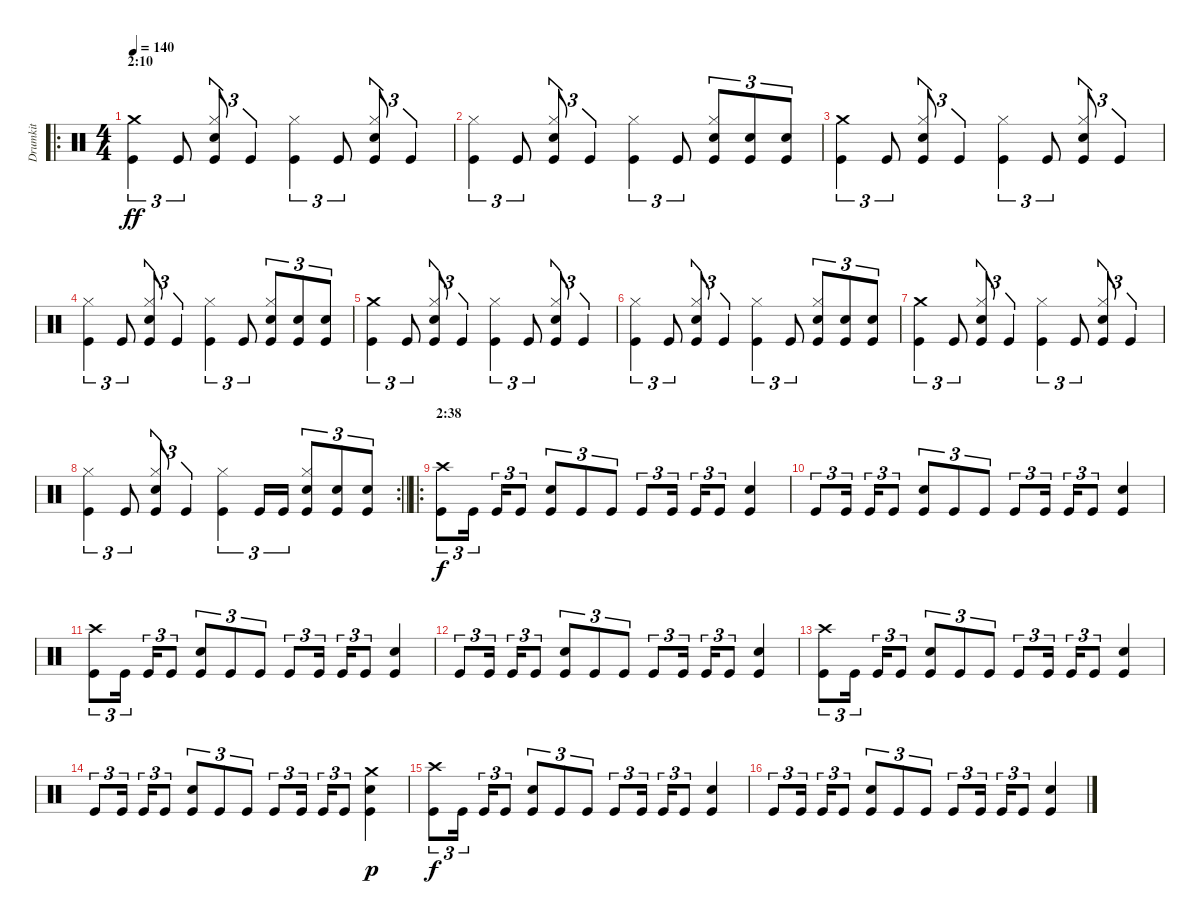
\track ("Drumkit" "Drumkit") {instrument percussion}
\staff {score}
\articulation defaults
\ro
\ts (4 4)
\section ("" "2:10")
\tempo 140
\clef neutral
\ks c
("Crash medium (hit)" "Kick (hit)").4{tu (3 2) dy ff} "Kick (hit)".8{tu (3 2)} ("Hi-Hat (closed)" "Snare (hit) 2" "Kick (hit)").8{tu (3 2)} "Kick (hit)".4{tu (3 2)} ("Hi-Hat (closed)" "Kick (hit)").4{tu (3 2)} "Kick (hit)".8{tu (3 2)} ("Hi-Hat (closed)" "Snare (hit) 2" "Kick (hit)").8{tu (3 2)} "Kick (hit)".4{tu (3 2)} |
("Hi-Hat (closed)" "Kick (hit)").4{tu (3 2)} "Kick (hit)".8{tu (3 2)} ("Hi-Hat (closed)" "Snare (hit) 2" "Kick (hit)").8{tu (3 2)} "Kick (hit)".4{tu (3 2)} ("Hi-Hat (closed)" "Kick (hit)").4{tu (3 2)} "Kick (hit)".8{tu (3 2)} ("Hi-Hat (closed)" "Snare (hit) 2" "Kick (hit)").8{tu (3 2)} ("Snare (hit) 2" "Kick (hit)").8{tu (3 2)} ("Snare (hit) 2" "Kick (hit)").8{tu (3 2)} |
("Crash medium (hit)" "Kick (hit)").4{tu (3 2)} "Kick (hit)".8{tu (3 2)} ("Hi-Hat (closed)" "Snare (hit) 2" "Kick (hit)").8{tu (3 2)} "Kick (hit)".4{tu (3 2)} ("Hi-Hat (closed)" "Kick (hit)").4{tu (3 2)} "Kick (hit)".8{tu (3 2)} ("Hi-Hat (closed)" "Snare (hit) 2" "Kick (hit)").8{tu (3 2)} "Kick (hit)".4{tu (3 2)} |
("Hi-Hat (closed)" "Kick (hit)").4{tu (3 2)} "Kick (hit)".8{tu (3 2)} ("Hi-Hat (closed)" "Snare (hit) 2" "Kick (hit)").8{tu (3 2)} "Kick (hit)".4{tu (3 2)} ("Hi-Hat (closed)" "Kick (hit)").4{tu (3 2)} "Kick (hit)".8{tu (3 2)} ("Hi-Hat (closed)" "Snare (hit) 2" "Kick (hit)").8{tu (3 2)} ("Snare (hit) 2" "Kick (hit)").8{tu (3 2)} ("Snare (hit) 2" "Kick (hit)").8{tu (3 2)} |
("Crash medium (hit)" "Kick (hit)").4{tu (3 2)} "Kick (hit)".8{tu (3 2)} ("Hi-Hat (closed)" "Snare (hit) 2" "Kick (hit)").8{tu (3 2)} "Kick (hit)".4{tu (3 2)} ("Hi-Hat (closed)" "Kick (hit)").4{tu (3 2)} "Kick (hit)".8{tu (3 2)} ("Hi-Hat (closed)" "Snare (hit) 2" "Kick (hit)").8{tu (3 2)} "Kick (hit)".4{tu (3 2)} |
("Hi-Hat (closed)" "Kick (hit)").4{tu (3 2)} "Kick (hit)".8{tu (3 2)} ("Hi-Hat (closed)" "Snare (hit) 2" "Kick (hit)").8{tu (3 2)} "Kick (hit)".4{tu (3 2)} ("Hi-Hat (closed)" "Kick (hit)").4{tu (3 2)} "Kick (hit)".8{tu (3 2)} ("Hi-Hat (closed)" "Snare (hit) 2" "Kick (hit)").8{tu (3 2)} ("Snare (hit) 2" "Kick (hit)").8{tu (3 2)} ("Snare (hit) 2" "Kick (hit)").8{tu (3 2)} |
("Crash medium (hit)" "Kick (hit)").4{tu (3 2)} "Kick (hit)".8{tu (3 2)} ("Hi-Hat (closed)" "Snare (hit) 2" "Kick (hit)").8{tu (3 2)} "Kick (hit)".4{tu (3 2)} ("Hi-Hat (closed)" "Kick (hit)").4{tu (3 2)} "Kick (hit)".8{tu (3 2)} ("Hi-Hat (closed)" "Snare (hit) 2" "Kick (hit)").8{tu (3 2)} "Kick (hit)".4{tu (3 2)} |
\rc 2
\barLineRight lightlight
("Hi-Hat (closed)" "Kick (hit)").4{tu (3 2)} "Kick (hit)".8{tu (3 2)} ("Hi-Hat (closed)" "Snare (hit) 2" "Kick (hit)").8{tu (3 2)} "Kick (hit)".4{tu (3 2)} ("Hi-Hat (closed)" "Kick (hit)").4{tu (3 2)} "Kick (hit)".16{tu (3 2)} "Kick (hit)".16{tu (3 2)} ("Hi-Hat (closed)" "Snare (hit) 2" "Kick (hit)").8{tu (3 2)} ("Snare (hit) 2" "Kick (hit)").8{tu (3 2)} ("Snare (hit) 2" "Kick (hit)").8{tu (3 2)} |
\ro
\section ("" "2:38")
("Crash high (hit)" "Kick (hit)").8{tu (3 2) dy f} "Kick (hit)".16{tu (3 2) beam splitsecondary} "Kick (hit)".16{tu (3 2)} "Kick (hit)".8{tu (3 2)} ("Snare (hit) 2" "Kick (hit)").8{tu (3 2)} "Kick (hit)".8{tu (3 2)} "Kick (hit)".8{tu (3 2)} "Kick (hit)".8{tu (3 2)} "Kick (hit)".16{tu (3 2) beam splitsecondary} "Kick (hit)".16{tu (3 2)} "Kick (hit)".8{tu (3 2)} ("Snare (hit) 2" "Kick (hit)").4 |
"Kick (hit)".8{tu (3 2)} "Kick (hit)".16{tu (3 2) beam splitsecondary} "Kick (hit)".16{tu (3 2)} "Kick (hit)".8{tu (3 2)} ("Snare (hit) 2" "Kick (hit)").8{tu (3 2)} "Kick (hit)".8{tu (3 2)} "Kick (hit)".8{tu (3 2)} "Kick (hit)".8{tu (3 2)} "Kick (hit)".16{tu (3 2) beam splitsecondary} "Kick (hit)".16{tu (3 2)} "Kick (hit)".8{tu (3 2)} ("Snare (hit) 2" "Kick (hit)").4 |
("Crash high (hit)" "Kick (hit)").8{tu (3 2)} "Kick (hit)".16{tu (3 2) beam splitsecondary} "Kick (hit)".16{tu (3 2)} "Kick (hit)".8{tu (3 2)} ("Snare (hit) 2" "Kick (hit)").8{tu (3 2)} "Kick (hit)".8{tu (3 2)} "Kick (hit)".8{tu (3 2)} "Kick (hit)".8{tu (3 2)} "Kick (hit)".16{tu (3 2) beam splitsecondary} "Kick (hit)".16{tu (3 2)} "Kick (hit)".8{tu (3 2)} ("Snare (hit) 2" "Kick (hit)").4 |
"Kick (hit)".8{tu (3 2)} "Kick (hit)".16{tu (3 2) beam splitsecondary} "Kick (hit)".16{tu (3 2)} "Kick (hit)".8{tu (3 2)} ("Snare (hit) 2" "Kick (hit)").8{tu (3 2)} "Kick (hit)".8{tu (3 2)} "Kick (hit)".8{tu (3 2)} "Kick (hit)".8{tu (3 2)} "Kick (hit)".16{tu (3 2) beam splitsecondary} "Kick (hit)".16{tu (3 2)} "Kick (hit)".8{tu (3 2)} ("Snare (hit) 2" "Kick (hit)").4 |
("Crash high (hit)" "Kick (hit)").8{tu (3 2)} "Kick (hit)".16{tu (3 2) beam splitsecondary} "Kick (hit)".16{tu (3 2)} "Kick (hit)".8{tu (3 2)} ("Snare (hit) 2" "Kick (hit)").8{tu (3 2)} "Kick (hit)".8{tu (3 2)} "Kick (hit)".8{tu (3 2)} "Kick (hit)".8{tu (3 2)} "Kick (hit)".16{tu (3 2) beam splitsecondary} "Kick (hit)".16{tu (3 2)} "Kick (hit)".8{tu (3 2)} ("Snare (hit) 2" "Kick (hit)").4 |
"Kick (hit)".8{tu (3 2)} "Kick (hit)".16{tu (3 2) beam splitsecondary} "Kick (hit)".16{tu (3 2)} "Kick (hit)".8{tu (3 2)} ("Snare (hit) 2" "Kick (hit)").8{tu (3 2)} "Kick (hit)".8{tu (3 2)} "Kick (hit)".8{tu (3 2)} "Kick (hit)".8{tu (3 2)} "Kick (hit)".16{tu (3 2) beam splitsecondary} "Kick (hit)".16{tu (3 2)} "Kick (hit)".8{tu (3 2)} ("Crash medium (hit)" "Snare (hit) 2" "Kick (hit)").4{dy p} |
("Crash high (hit)" "Kick (hit)").8{tu (3 2) dy f} "Kick (hit)".16{tu (3 2) beam splitsecondary} "Kick (hit)".16{tu (3 2)} "Kick (hit)".8{tu (3 2)} ("Snare (hit) 2" "Kick (hit)").8{tu (3 2)} "Kick (hit)".8{tu (3 2)} "Kick (hit)".8{tu (3 2)} "Kick (hit)".8{tu (3 2)} "Kick (hit)".16{tu (3 2) beam splitsecondary} "Kick (hit)".16{tu (3 2)} "Kick (hit)".8{tu (3 2)} ("Snare (hit) 2" "Kick (hit)").4 |
"Kick (hit)".8{tu (3 2)} "Kick (hit)".16{tu (3 2) beam splitsecondary} "Kick (hit)".16{tu (3 2)} "Kick (hit)".8{tu (3 2)} ("Snare (hit) 2" "Kick (hit)").8{tu (3 2)} "Kick (hit)".8{tu (3 2)} "Kick (hit)".8{tu (3 2)} "Kick (hit)".8{tu (3 2)} "Kick (hit)".16{tu (3 2) beam splitsecondary} "Kick (hit)".16{tu (3 2)} "Kick (hit)".8{tu (3 2)} ("Snare (hit) 2" "Kick (hit)").4
